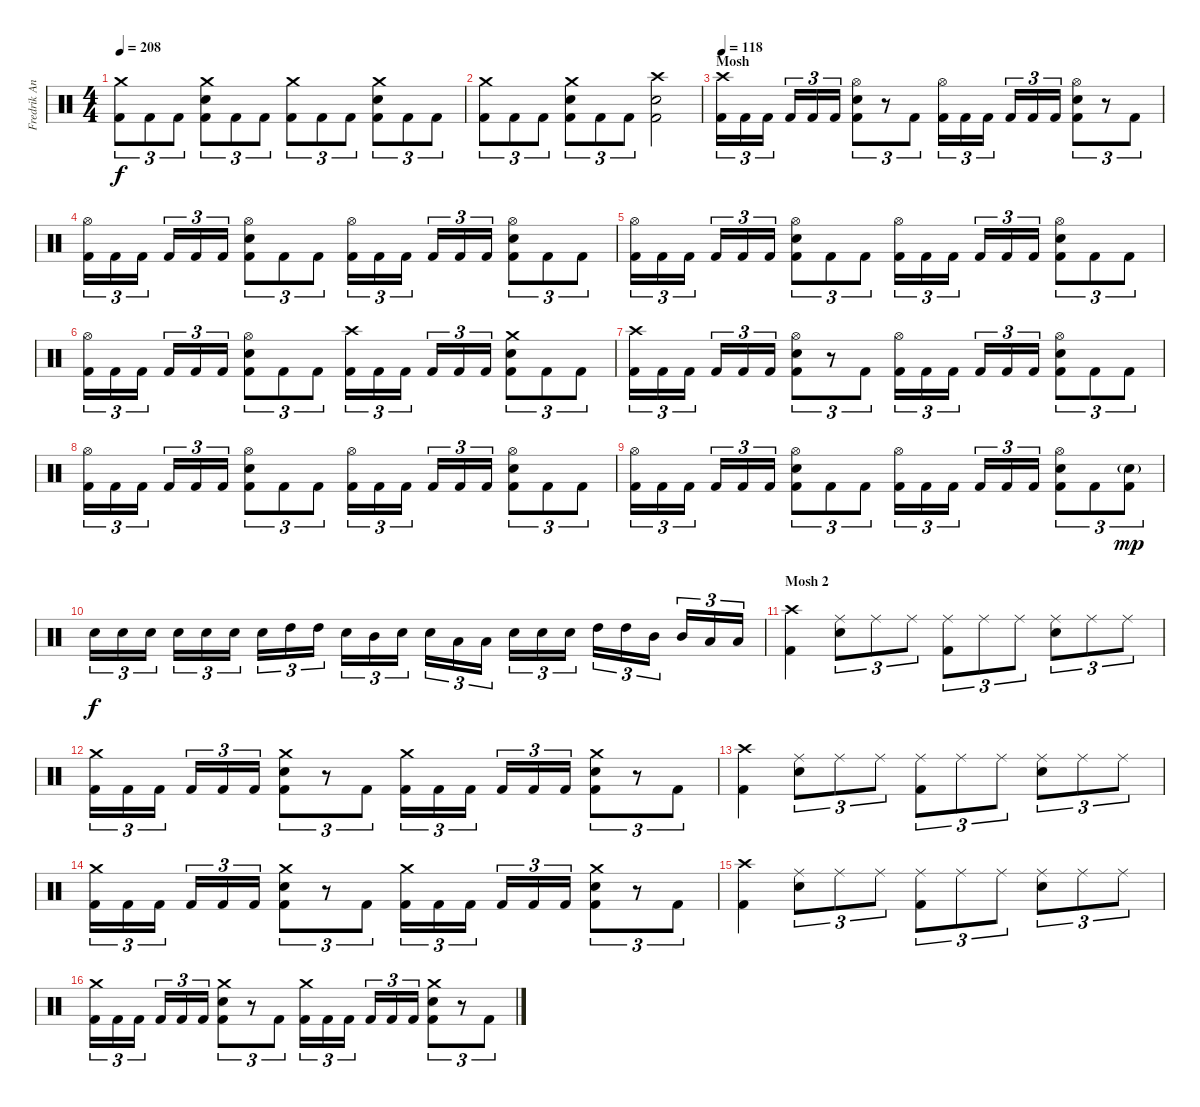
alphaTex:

\track ("Fredrik Andersson" "Fredrik An") {instrument percussion}
\staff {score}
\articulation defaults
\ts (4 4)
\tempo 208
\clef neutral
\ks c
("Crash medium (hit)" "Kick (hit) 2").8{tu (3 2) dy f} "Kick (hit) 2".8{tu (3 2)} "Kick (hit) 2".8{tu (3 2)} ("Crash medium (hit)" "Electric Snare (hit)" "Kick (hit) 2").8{tu (3 2)} "Kick (hit) 2".8{tu (3 2)} "Kick (hit) 2".8{tu (3 2)} ("Crash medium (hit)" "Kick (hit) 2").8{tu (3 2)} "Kick (hit) 2".8{tu (3 2)} "Kick (hit) 2".8{tu (3 2)} ("Crash medium (hit)" "Electric Snare (hit)" "Kick (hit) 2").8{tu (3 2)} "Kick (hit) 2".8{tu (3 2)} "Kick (hit) 2".8{tu (3 2)} |
("Crash medium (hit)" "Kick (hit) 2").8{tu (3 2)} "Kick (hit) 2".8{tu (3 2)} "Kick (hit) 2".8{tu (3 2)} ("Crash medium (hit)" "Electric Snare (hit)" "Kick (hit) 2").8{tu (3 2)} "Kick (hit) 2".8{tu (3 2)} "Kick (hit) 2".8{tu (3 2)} ("Crash high (hit)" "Electric Snare (hit)" "Kick (hit) 2").2 |
\section ("" "Mosh")
\tempo 118
("Crash high (hit)" "Kick (hit) 2").16{tu (3 2)} "Kick (hit) 2".16{tu (3 2)} "Kick (hit) 2".16{tu (3 2)} "Kick (hit) 2".16{tu (3 2)} "Kick (hit) 2".16{tu (3 2)} "Kick (hit) 2".16{tu (3 2)} ("Hi-Hat (open)" "Electric Snare (hit)" "Kick (hit) 2").8{tu (3 2)} r.8{tu (3 2)} "Kick (hit) 2".8{tu (3 2)} ("Hi-Hat (open)" "Kick (hit) 2").16{tu (3 2)} "Kick (hit) 2".16{tu (3 2)} "Kick (hit) 2".16{tu (3 2)} "Kick (hit) 2".16{tu (3 2)} "Kick (hit) 2".16{tu (3 2)} "Kick (hit) 2".16{tu (3 2)} ("Hi-Hat (open)" "Electric Snare (hit)" "Kick (hit) 2").8{tu (3 2)} r.8{tu (3 2)} "Kick (hit) 2".8{tu (3 2)} |
("Hi-Hat (open)" "Kick (hit) 2").16{tu (3 2)} "Kick (hit) 2".16{tu (3 2)} "Kick (hit) 2".16{tu (3 2)} "Kick (hit) 2".16{tu (3 2)} "Kick (hit) 2".16{tu (3 2)} "Kick (hit) 2".16{tu (3 2)} ("Hi-Hat (open)" "Electric Snare (hit)" "Kick (hit) 2").8{tu (3 2)} "Kick (hit) 2".8{tu (3 2)} "Kick (hit) 2".8{tu (3 2)} ("Hi-Hat (open)" "Kick (hit) 2").16{tu (3 2)} "Kick (hit) 2".16{tu (3 2)} "Kick (hit) 2".16{tu (3 2)} "Kick (hit) 2".16{tu (3 2)} "Kick (hit) 2".16{tu (3 2)} "Kick (hit) 2".16{tu (3 2)} ("Hi-Hat (open)" "Electric Snare (hit)" "Kick (hit) 2").8{tu (3 2)} "Kick (hit) 2".8{tu (3 2)} "Kick (hit) 2".8{tu (3 2)} |
("Hi-Hat (open)" "Kick (hit) 2").16{tu (3 2)} "Kick (hit) 2".16{tu (3 2)} "Kick (hit) 2".16{tu (3 2)} "Kick (hit) 2".16{tu (3 2)} "Kick (hit) 2".16{tu (3 2)} "Kick (hit) 2".16{tu (3 2)} ("Hi-Hat (open)" "Electric Snare (hit)" "Kick (hit) 2").8{tu (3 2)} "Kick (hit) 2".8{tu (3 2)} "Kick (hit) 2".8{tu (3 2)} ("Hi-Hat (open)" "Kick (hit) 2").16{tu (3 2)} "Kick (hit) 2".16{tu (3 2)} "Kick (hit) 2".16{tu (3 2)} "Kick (hit) 2".16{tu (3 2)} "Kick (hit) 2".16{tu (3 2)} "Kick (hit) 2".16{tu (3 2)} ("Hi-Hat (open)" "Electric Snare (hit)" "Kick (hit) 2").8{tu (3 2)} "Kick (hit) 2".8{tu (3 2)} "Kick (hit) 2".8{tu (3 2)} |
("Hi-Hat (open)" "Kick (hit) 2").16{tu (3 2)} "Kick (hit) 2".16{tu (3 2)} "Kick (hit) 2".16{tu (3 2)} "Kick (hit) 2".16{tu (3 2)} "Kick (hit) 2".16{tu (3 2)} "Kick (hit) 2".16{tu (3 2)} ("Hi-Hat (open)" "Electric Snare (hit)" "Kick (hit) 2").8{tu (3 2)} "Kick (hit) 2".8{tu (3 2)} "Kick (hit) 2".8{tu (3 2)} ("Crash high (hit)" "Kick (hit) 2").16{tu (3 2)} "Kick (hit) 2".16{tu (3 2)} "Kick (hit) 2".16{tu (3 2)} "Kick (hit) 2".16{tu (3 2)} "Kick (hit) 2".16{tu (3 2)} "Kick (hit) 2".16{tu (3 2)} ("Crash medium (hit)" "Electric Snare (hit)" "Kick (hit) 2").8{tu (3 2)} "Kick (hit) 2".8{tu (3 2)} "Kick (hit) 2".8{tu (3 2)} |
("Crash high (hit)" "Kick (hit) 2").16{tu (3 2)} "Kick (hit) 2".16{tu (3 2)} "Kick (hit) 2".16{tu (3 2)} "Kick (hit) 2".16{tu (3 2)} "Kick (hit) 2".16{tu (3 2)} "Kick (hit) 2".16{tu (3 2)} ("Hi-Hat (open)" "Electric Snare (hit)" "Kick (hit) 2").8{tu (3 2)} r.8{tu (3 2)} "Kick (hit) 2".8{tu (3 2)} ("Hi-Hat (open)" "Kick (hit) 2").16{tu (3 2)} "Kick (hit) 2".16{tu (3 2)} "Kick (hit) 2".16{tu (3 2)} "Kick (hit) 2".16{tu (3 2)} "Kick (hit) 2".16{tu (3 2)} "Kick (hit) 2".16{tu (3 2)} ("Hi-Hat (open)" "Electric Snare (hit)" "Kick (hit) 2").8{tu (3 2)} "Kick (hit) 2".8{tu (3 2)} "Kick (hit) 2".8{tu (3 2)} |
("Hi-Hat (open)" "Kick (hit) 2").16{tu (3 2)} "Kick (hit) 2".16{tu (3 2)} "Kick (hit) 2".16{tu (3 2)} "Kick (hit) 2".16{tu (3 2)} "Kick (hit) 2".16{tu (3 2)} "Kick (hit) 2".16{tu (3 2)} ("Hi-Hat (open)" "Electric Snare (hit)" "Kick (hit) 2").8{tu (3 2)} "Kick (hit) 2".8{tu (3 2)} "Kick (hit) 2".8{tu (3 2)} ("Hi-Hat (open)" "Kick (hit) 2").16{tu (3 2)} "Kick (hit) 2".16{tu (3 2)} "Kick (hit) 2".16{tu (3 2)} "Kick (hit) 2".16{tu (3 2)} "Kick (hit) 2".16{tu (3 2)} "Kick (hit) 2".16{tu (3 2)} ("Hi-Hat (open)" "Electric Snare (hit)" "Kick (hit) 2").8{tu (3 2)} "Kick (hit) 2".8{tu (3 2)} "Kick (hit) 2".8{tu (3 2)} |
("Hi-Hat (open)" "Kick (hit) 2").16{tu (3 2)} "Kick (hit) 2".16{tu (3 2)} "Kick (hit) 2".16{tu (3 2)} "Kick (hit) 2".16{tu (3 2)} "Kick (hit) 2".16{tu (3 2)} "Kick (hit) 2".16{tu (3 2)} ("Hi-Hat (open)" "Electric Snare (hit)" "Kick (hit) 2").8{tu (3 2)} "Kick (hit) 2".8{tu (3 2)} "Kick (hit) 2".8{tu (3 2)} ("Hi-Hat (open)" "Kick (hit) 2").16{tu (3 2)} "Kick (hit) 2".16{tu (3 2)} "Kick (hit) 2".16{tu (3 2)} "Kick (hit) 2".16{tu (3 2)} "Kick (hit) 2".16{tu (3 2)} "Kick (hit) 2".16{tu (3 2)} ("Hi-Hat (open)" "Electric Snare (hit)" "Kick (hit) 2").8{tu (3 2)} "Kick (hit) 2".8{tu (3 2)} ("Electric Snare (hit)"{g} "Kick (hit) 2").8{tu (3 2) dy mp} |
"Electric Snare (hit)".16{tu (3 2) dy f} "Electric Snare (hit)".16{tu (3 2)} "Electric Snare (hit)".16{tu (3 2)} "Electric Snare (hit)".16{tu (3 2)} "Electric Snare (hit)".16{tu (3 2)} "Electric Snare (hit)".16{tu (3 2)} "Electric Snare (hit)".16{tu (3 2)} "High Tom (hit)".16{tu (3 2)} "High Tom (hit)".16{tu (3 2)} "Electric Snare (hit)".16{tu (3 2)} "Mid Tom (hit)".16{tu (3 2)} "Electric Snare (hit)".16{tu (3 2)} "Electric Snare (hit)".16{tu (3 2)} "Low Tom (hit)".16{tu (3 2)} "Low Tom (hit)".16{tu (3 2)} "Electric Snare (hit)".16{tu (3 2)} "Electric Snare (hit)".16{tu (3 2)} "Electric Snare (hit)".16{tu (3 2)} "High Tom (hit)".16{tu (3 2)} "High Tom (hit)".16{tu (3 2)} "Mid Tom (hit)".16{tu (3 2)} "Mid Tom (hit)".16{tu (3 2)} "Low Tom (hit)".16{tu (3 2)} "Low Tom (hit)".16{tu (3 2)} |
\section ("" "Mosh 2")
("Crash high (hit)" "Kick (hit) 2").4 ("Ride (middle)" "Electric Snare (hit)").8{tu (3 2)} "Ride (middle)".8{tu (3 2)} "Ride (middle)".8{tu (3 2)} ("Ride (middle)" "Kick (hit) 2").8{tu (3 2)} "Ride (middle)".8{tu (3 2)} "Ride (middle)".8{tu (3 2)} ("Ride (middle)" "Electric Snare (hit)").8{tu (3 2)} "Ride (middle)".8{tu (3 2)} "Ride (middle)".8{tu (3 2)} |
("Crash medium (hit)" "Kick (hit) 2").16{tu (3 2)} "Kick (hit) 2".16{tu (3 2)} "Kick (hit) 2".16{tu (3 2)} "Kick (hit) 2".16{tu (3 2)} "Kick (hit) 2".16{tu (3 2)} "Kick (hit) 2".16{tu (3 2)} ("Crash medium (hit)" "Electric Snare (hit)" "Kick (hit) 2").8{tu (3 2)} r.8{tu (3 2)} "Kick (hit) 2".8{tu (3 2)} ("Crash medium (hit)" "Kick (hit) 2").16{tu (3 2)} "Kick (hit) 2".16{tu (3 2)} "Kick (hit) 2".16{tu (3 2)} "Kick (hit) 2".16{tu (3 2)} "Kick (hit) 2".16{tu (3 2)} "Kick (hit) 2".16{tu (3 2)} ("Crash medium (hit)" "Electric Snare (hit)" "Kick (hit) 2").8{tu (3 2)} r.8{tu (3 2)} "Kick (hit) 2".8{tu (3 2)} |
("Crash high (hit)" "Kick (hit) 2").4 ("Ride (middle)" "Electric Snare (hit)").8{tu (3 2)} "Ride (middle)".8{tu (3 2)} "Ride (middle)".8{tu (3 2)} ("Ride (middle)" "Kick (hit) 2").8{tu (3 2)} "Ride (middle)".8{tu (3 2)} "Ride (middle)".8{tu (3 2)} ("Ride (middle)" "Electric Snare (hit)").8{tu (3 2)} "Ride (middle)".8{tu (3 2)} "Ride (middle)".8{tu (3 2)} |
("Crash medium (hit)" "Kick (hit) 2").16{tu (3 2)} "Kick (hit) 2".16{tu (3 2)} "Kick (hit) 2".16{tu (3 2)} "Kick (hit) 2".16{tu (3 2)} "Kick (hit) 2".16{tu (3 2)} "Kick (hit) 2".16{tu (3 2)} ("Crash medium (hit)" "Electric Snare (hit)" "Kick (hit) 2").8{tu (3 2)} r.8{tu (3 2)} "Kick (hit) 2".8{tu (3 2)} ("Crash medium (hit)" "Kick (hit) 2").16{tu (3 2)} "Kick (hit) 2".16{tu (3 2)} "Kick (hit) 2".16{tu (3 2)} "Kick (hit) 2".16{tu (3 2)} "Kick (hit) 2".16{tu (3 2)} "Kick (hit) 2".16{tu (3 2)} ("Crash medium (hit)" "Electric Snare (hit)" "Kick (hit) 2").8{tu (3 2)} r.8{tu (3 2)} "Kick (hit) 2".8{tu (3 2)} |
("Crash high (hit)" "Kick (hit) 2").4 ("Ride (middle)" "Electric Snare (hit)").8{tu (3 2)} "Ride (middle)".8{tu (3 2)} "Ride (middle)".8{tu (3 2)} ("Ride (middle)" "Kick (hit) 2").8{tu (3 2)} "Ride (middle)".8{tu (3 2)} "Ride (middle)".8{tu (3 2)} ("Ride (middle)" "Electric Snare (hit)").8{tu (3 2)} "Ride (middle)".8{tu (3 2)} "Ride (middle)".8{tu (3 2)} |
("Crash medium (hit)" "Kick (hit) 2").16{tu (3 2)} "Kick (hit) 2".16{tu (3 2)} "Kick (hit) 2".16{tu (3 2)} "Kick (hit) 2".16{tu (3 2)} "Kick (hit) 2".16{tu (3 2)} "Kick (hit) 2".16{tu (3 2)} ("Crash medium (hit)" "Electric Snare (hit)" "Kick (hit) 2").8{tu (3 2)} r.8{tu (3 2)} "Kick (hit) 2".8{tu (3 2)} ("Crash medium (hit)" "Kick (hit) 2").16{tu (3 2)} "Kick (hit) 2".16{tu (3 2)} "Kick (hit) 2".16{tu (3 2)} "Kick (hit) 2".16{tu (3 2)} "Kick (hit) 2".16{tu (3 2)} "Kick (hit) 2".16{tu (3 2)} ("Crash medium (hit)" "Electric Snare (hit)" "Kick (hit) 2").8{tu (3 2)} r.8{tu (3 2)} "Kick (hit) 2".8{tu (3 2)}
